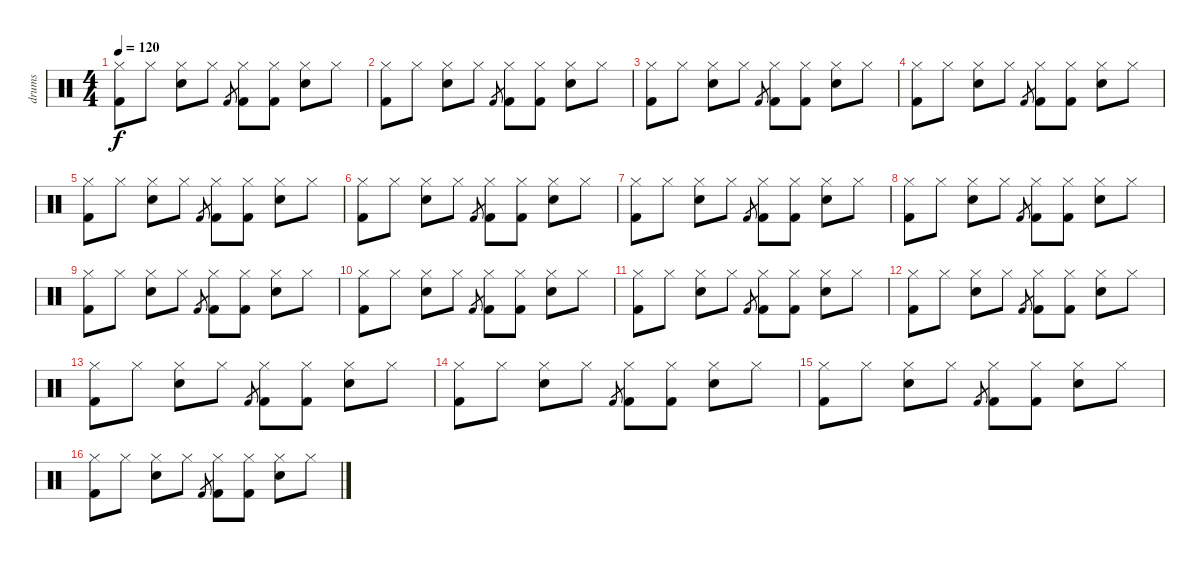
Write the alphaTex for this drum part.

\track ("drums" "drums") {instrument percussion}
\staff {score}
\articulation defaults
\ts (4 4)
\tempo 120
\clef neutral
\ks c
("Hi-Hat (closed)" "Kick (hit) 2").8{dy f} "Hi-Hat (closed)".8 ("Hi-Hat (closed)" "Electric Snare (hit)").8 "Hi-Hat (closed)".8 "Kick (hit) 2".8{gr} ("Hi-Hat (closed)" "Kick (hit) 2").8 ("Hi-Hat (closed)" "Kick (hit) 2").8 ("Hi-Hat (closed)" "Electric Snare (hit)").8 "Hi-Hat (closed)".8 |
("Hi-Hat (closed)" "Kick (hit) 2").8 "Hi-Hat (closed)".8 ("Hi-Hat (closed)" "Electric Snare (hit)").8 "Hi-Hat (closed)".8 "Kick (hit) 2".8{gr} ("Hi-Hat (closed)" "Kick (hit) 2").8 ("Hi-Hat (closed)" "Kick (hit) 2").8 ("Hi-Hat (closed)" "Electric Snare (hit)").8 "Hi-Hat (closed)".8 |
("Hi-Hat (closed)" "Kick (hit) 2").8 "Hi-Hat (closed)".8 ("Hi-Hat (closed)" "Electric Snare (hit)").8 "Hi-Hat (closed)".8 "Kick (hit) 2".8{gr} ("Hi-Hat (closed)" "Kick (hit) 2").8 ("Hi-Hat (closed)" "Kick (hit) 2").8 ("Hi-Hat (closed)" "Electric Snare (hit)").8 "Hi-Hat (closed)".8 |
("Hi-Hat (closed)" "Kick (hit) 2").8 "Hi-Hat (closed)".8 ("Hi-Hat (closed)" "Electric Snare (hit)").8 "Hi-Hat (closed)".8 "Kick (hit) 2".8{gr} ("Hi-Hat (closed)" "Kick (hit) 2").8 ("Hi-Hat (closed)" "Kick (hit) 2").8 ("Hi-Hat (closed)" "Electric Snare (hit)").8 "Hi-Hat (closed)".8 |
("Hi-Hat (closed)" "Kick (hit) 2").8 "Hi-Hat (closed)".8 ("Hi-Hat (closed)" "Electric Snare (hit)").8 "Hi-Hat (closed)".8 "Kick (hit) 2".8{gr} ("Hi-Hat (closed)" "Kick (hit) 2").8 ("Hi-Hat (closed)" "Kick (hit) 2").8 ("Hi-Hat (closed)" "Electric Snare (hit)").8 "Hi-Hat (closed)".8 |
("Hi-Hat (closed)" "Kick (hit) 2").8 "Hi-Hat (closed)".8 ("Hi-Hat (closed)" "Electric Snare (hit)").8 "Hi-Hat (closed)".8 "Kick (hit) 2".8{gr} ("Hi-Hat (closed)" "Kick (hit) 2").8 ("Hi-Hat (closed)" "Kick (hit) 2").8 ("Hi-Hat (closed)" "Electric Snare (hit)").8 "Hi-Hat (closed)".8 |
("Hi-Hat (closed)" "Kick (hit) 2").8 "Hi-Hat (closed)".8 ("Hi-Hat (closed)" "Electric Snare (hit)").8 "Hi-Hat (closed)".8 "Kick (hit) 2".8{gr} ("Hi-Hat (closed)" "Kick (hit) 2").8 ("Hi-Hat (closed)" "Kick (hit) 2").8 ("Hi-Hat (closed)" "Electric Snare (hit)").8 "Hi-Hat (closed)".8 |
("Hi-Hat (closed)" "Kick (hit) 2").8 "Hi-Hat (closed)".8 ("Hi-Hat (closed)" "Electric Snare (hit)").8 "Hi-Hat (closed)".8 "Kick (hit) 2".8{gr} ("Hi-Hat (closed)" "Kick (hit) 2").8 ("Hi-Hat (closed)" "Kick (hit) 2").8 ("Hi-Hat (closed)" "Electric Snare (hit)").8 "Hi-Hat (closed)".8 |
("Hi-Hat (closed)" "Kick (hit) 2").8 "Hi-Hat (closed)".8 ("Hi-Hat (closed)" "Electric Snare (hit)").8 "Hi-Hat (closed)".8 "Kick (hit) 2".8{gr} ("Hi-Hat (closed)" "Kick (hit) 2").8 ("Hi-Hat (closed)" "Kick (hit) 2").8 ("Hi-Hat (closed)" "Electric Snare (hit)").8 "Hi-Hat (closed)".8 |
("Hi-Hat (closed)" "Kick (hit) 2").8 "Hi-Hat (closed)".8 ("Hi-Hat (closed)" "Electric Snare (hit)").8 "Hi-Hat (closed)".8 "Kick (hit) 2".8{gr} ("Hi-Hat (closed)" "Kick (hit) 2").8 ("Hi-Hat (closed)" "Kick (hit) 2").8 ("Hi-Hat (closed)" "Electric Snare (hit)").8 "Hi-Hat (closed)".8 |
("Hi-Hat (closed)" "Kick (hit) 2").8 "Hi-Hat (closed)".8 ("Hi-Hat (closed)" "Electric Snare (hit)").8 "Hi-Hat (closed)".8 "Kick (hit) 2".8{gr} ("Hi-Hat (closed)" "Kick (hit) 2").8 ("Hi-Hat (closed)" "Kick (hit) 2").8 ("Hi-Hat (closed)" "Electric Snare (hit)").8 "Hi-Hat (closed)".8 |
("Hi-Hat (closed)" "Kick (hit) 2").8 "Hi-Hat (closed)".8 ("Hi-Hat (closed)" "Electric Snare (hit)").8 "Hi-Hat (closed)".8 "Kick (hit) 2".8{gr} ("Hi-Hat (closed)" "Kick (hit) 2").8 ("Hi-Hat (closed)" "Kick (hit) 2").8 ("Hi-Hat (closed)" "Electric Snare (hit)").8 "Hi-Hat (closed)".8 |
("Hi-Hat (closed)" "Kick (hit) 2").8 "Hi-Hat (closed)".8 ("Hi-Hat (closed)" "Electric Snare (hit)").8 "Hi-Hat (closed)".8 "Kick (hit) 2".8{gr} ("Hi-Hat (closed)" "Kick (hit) 2").8 ("Hi-Hat (closed)" "Kick (hit) 2").8 ("Hi-Hat (closed)" "Electric Snare (hit)").8 "Hi-Hat (closed)".8 |
("Hi-Hat (closed)" "Kick (hit) 2").8 "Hi-Hat (closed)".8 ("Hi-Hat (closed)" "Electric Snare (hit)").8 "Hi-Hat (closed)".8 "Kick (hit) 2".8{gr} ("Hi-Hat (closed)" "Kick (hit) 2").8 ("Hi-Hat (closed)" "Kick (hit) 2").8 ("Hi-Hat (closed)" "Electric Snare (hit)").8 "Hi-Hat (closed)".8 |
("Hi-Hat (closed)" "Kick (hit) 2").8 "Hi-Hat (closed)".8 ("Hi-Hat (closed)" "Electric Snare (hit)").8 "Hi-Hat (closed)".8 "Kick (hit) 2".8{gr} ("Hi-Hat (closed)" "Kick (hit) 2").8 ("Hi-Hat (closed)" "Kick (hit) 2").8 ("Hi-Hat (closed)" "Electric Snare (hit)").8 "Hi-Hat (closed)".8 |
("Hi-Hat (closed)" "Kick (hit) 2").8 "Hi-Hat (closed)".8 ("Hi-Hat (closed)" "Electric Snare (hit)").8 "Hi-Hat (closed)".8 "Kick (hit) 2".8{gr} ("Hi-Hat (closed)" "Kick (hit) 2").8 ("Hi-Hat (closed)" "Kick (hit) 2").8 ("Hi-Hat (closed)" "Electric Snare (hit)").8 "Hi-Hat (closed)".8
